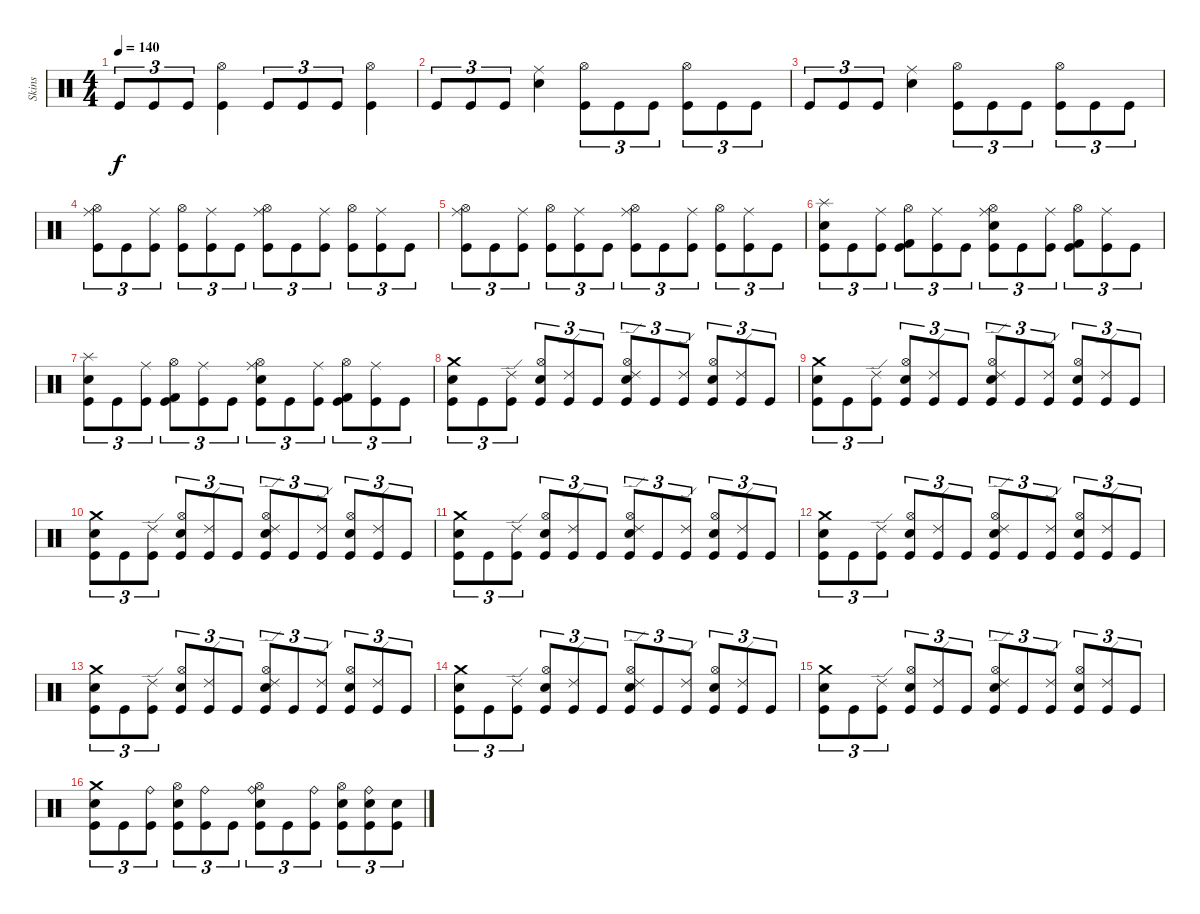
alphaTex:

\track ("Skins" "Skins") {instrument percussion}
\staff {score}
\articulation defaults
\ts (4 4)
\tempo 140
\clef neutral
\ks c "Kick (hit)".8{tu (3 2) dy f} "Kick (hit)".8{tu (3 2)} "Kick (hit)".8{tu (3 2)}
("Hi-Hat (open)" "Kick (hit)").4 "Kick (hit)".8{tu (3 2)} "Kick (hit)".8{tu (3 2)} "Kick (hit)".8{tu (3 2)} ("Hi-Hat (open)" "Kick (hit)").4 |
"Kick (hit)".8{tu (3 2)} "Kick (hit)".8{tu (3 2)} "Kick (hit)".8{tu (3 2)} ("Ride (middle)" "Electric Snare (hit)").4 ("Hi-Hat (open)" "Kick (hit)").8{tu (3 2)} "Kick (hit)".8{tu (3 2)} "Kick (hit)".8{tu (3 2)} ("Hi-Hat (open)" "Kick (hit)").8{tu (3 2)} "Kick (hit)".8{tu (3 2)} "Kick (hit)".8{tu (3 2)} |
"Kick (hit)".8{tu (3 2)} "Kick (hit)".8{tu (3 2)} "Kick (hit)".8{tu (3 2)} ("Ride (middle)" "Electric Snare (hit)").4 ("Hi-Hat (open)" "Kick (hit)").8{tu (3 2)} "Kick (hit)".8{tu (3 2)} "Kick (hit)".8{tu (3 2)} ("Hi-Hat (open)" "Kick (hit)").8{tu (3 2)} "Kick (hit)".8{tu (3 2)} "Kick (hit)".8{tu (3 2)} |
("Ride (middle)" "Hi-Hat (open)" "Kick (hit)").8{tu (3 2)} "Kick (hit)".8{tu (3 2)} ("Ride (middle)" "Kick (hit)").8{tu (3 2)} ("Hi-Hat (open)" "Kick (hit)").8{tu (3 2)} ("Ride (middle)" "Kick (hit)").8{tu (3 2)} "Kick (hit)".8{tu (3 2)} ("Ride (middle)" "Hi-Hat (open)" "Kick (hit)").8{tu (3 2)} "Kick (hit)".8{tu (3 2)} ("Ride (middle)" "Kick (hit)").8{tu (3 2)} ("Hi-Hat (open)" "Kick (hit)").8{tu (3 2)} ("Ride (middle)" "Kick (hit)").8{tu (3 2)} "Kick (hit)".8{tu (3 2)} |
("Ride (middle)" "Hi-Hat (open)" "Kick (hit)").8{tu (3 2)} "Kick (hit)".8{tu (3 2)} ("Ride (middle)" "Kick (hit)").8{tu (3 2)} ("Hi-Hat (open)" "Kick (hit)").8{tu (3 2)} ("Ride (middle)" "Kick (hit)").8{tu (3 2)} "Kick (hit)".8{tu (3 2)} ("Ride (middle)" "Hi-Hat (open)" "Kick (hit)").8{tu (3 2)} "Kick (hit)".8{tu (3 2)} ("Ride (middle)" "Kick (hit)").8{tu (3 2)} ("Hi-Hat (open)" "Kick (hit)").8{tu (3 2)} ("Ride (middle)" "Kick (hit)").8{tu (3 2)} "Kick (hit)".8{tu (3 2)} |
("Splash (hit)" "Snare (hit) 2" "Kick (hit)").8{tu (3 2)} "Kick (hit)".8{tu (3 2)} ("Ride (middle)" "Kick (hit)").8{tu (3 2)} ("Hi-Hat (open)" "Kick (hit) 2" "Kick (hit)").8{tu (3 2)} ("Ride (middle)" "Kick (hit)").8{tu (3 2)} "Kick (hit)".8{tu (3 2)} ("Ride (middle)" "Hi-Hat (open)" "Snare (hit) 2" "Kick (hit)").8{tu (3 2)} "Kick (hit)".8{tu (3 2)} ("Ride (middle)" "Kick (hit)").8{tu (3 2)} ("Hi-Hat (open)" "Kick (hit) 2" "Kick (hit)").8{tu (3 2)} ("Ride (middle)" "Kick (hit)").8{tu (3 2)} "Kick (hit)".8{tu (3 2)} |
("Splash (hit)" "Snare (hit) 2" "Kick (hit)").8{tu (3 2)} "Kick (hit)".8{tu (3 2)} ("Ride (middle)" "Kick (hit)").8{tu (3 2)} ("Hi-Hat (open)" "Kick (hit) 2" "Kick (hit)").8{tu (3 2)} ("Ride (middle)" "Kick (hit)").8{tu (3 2)} "Kick (hit)".8{tu (3 2)} ("Ride (middle)" "Hi-Hat (open)" "Snare (hit) 2" "Kick (hit)").8{tu (3 2)} "Kick (hit)".8{tu (3 2)} ("Ride (middle)" "Kick (hit)").8{tu (3 2)} ("Hi-Hat (open)" "Kick (hit) 2" "Kick (hit)").8{tu (3 2)} ("Ride (middle)" "Kick (hit)").8{tu (3 2)} "Kick (hit)".8{tu (3 2)} |
("Crash medium (hit)" "Electric Snare (hit)" "Kick (hit)").8{tu (3 2)} "Kick (hit)".8{tu (3 2)} ("Ride (edge) 2" "Kick (hit)").8{tu (3 2)} ("Hi-Hat (open)" "Electric Snare (hit)" "Kick (hit)").8{tu (3 2)} ("Ride (edge) 2" "Kick (hit)").8{tu (3 2)} "Kick (hit)".8{tu (3 2)} ("Ride (edge) 2" "Hi-Hat (open)" "Electric Snare (hit)" "Kick (hit)").8{tu (3 2)} "Kick (hit)".8{tu (3 2)} ("Ride (edge) 2" "Kick (hit)").8{tu (3 2)} ("Hi-Hat (open)" "Electric Snare (hit)" "Kick (hit)").8{tu (3 2)} ("Ride (edge) 2" "Kick (hit)").8{tu (3 2)} "Kick (hit)".8{tu (3 2)} |
("Crash medium (hit)" "Electric Snare (hit)" "Kick (hit)").8{tu (3 2)} "Kick (hit)".8{tu (3 2)} ("Ride (edge) 2" "Kick (hit)").8{tu (3 2)} ("Hi-Hat (open)" "Electric Snare (hit)" "Kick (hit)").8{tu (3 2)} ("Ride (edge) 2" "Kick (hit)").8{tu (3 2)} "Kick (hit)".8{tu (3 2)} ("Ride (edge) 2" "Hi-Hat (open)" "Electric Snare (hit)" "Kick (hit)").8{tu (3 2)} "Kick (hit)".8{tu (3 2)} ("Ride (edge) 2" "Kick (hit)").8{tu (3 2)} ("Hi-Hat (open)" "Electric Snare (hit)" "Kick (hit)").8{tu (3 2)} ("Ride (edge) 2" "Kick (hit)").8{tu (3 2)} "Kick (hit)".8{tu (3 2)} |
("Crash medium (hit)" "Electric Snare (hit)" "Kick (hit)").8{tu (3 2)} "Kick (hit)".8{tu (3 2)} ("Ride (edge) 2" "Kick (hit)").8{tu (3 2)} ("Hi-Hat (open)" "Electric Snare (hit)" "Kick (hit)").8{tu (3 2)} ("Ride (edge) 2" "Kick (hit)").8{tu (3 2)} "Kick (hit)".8{tu (3 2)} ("Ride (edge) 2" "Hi-Hat (open)" "Electric Snare (hit)" "Kick (hit)").8{tu (3 2)} "Kick (hit)".8{tu (3 2)} ("Ride (edge) 2" "Kick (hit)").8{tu (3 2)} ("Hi-Hat (open)" "Electric Snare (hit)" "Kick (hit)").8{tu (3 2)} ("Ride (edge) 2" "Kick (hit)").8{tu (3 2)} "Kick (hit)".8{tu (3 2)} |
("Crash medium (hit)" "Electric Snare (hit)" "Kick (hit)").8{tu (3 2)} "Kick (hit)".8{tu (3 2)} ("Ride (edge) 2" "Kick (hit)").8{tu (3 2)} ("Hi-Hat (open)" "Electric Snare (hit)" "Kick (hit)").8{tu (3 2)} ("Ride (edge) 2" "Kick (hit)").8{tu (3 2)} "Kick (hit)".8{tu (3 2)} ("Ride (edge) 2" "Hi-Hat (open)" "Electric Snare (hit)" "Kick (hit)").8{tu (3 2)} "Kick (hit)".8{tu (3 2)} ("Ride (edge) 2" "Kick (hit)").8{tu (3 2)} ("Hi-Hat (open)" "Electric Snare (hit)" "Kick (hit)").8{tu (3 2)} ("Ride (edge) 2" "Kick (hit)").8{tu (3 2)} "Kick (hit)".8{tu (3 2)} |
("Crash medium (hit)" "Electric Snare (hit)" "Kick (hit)").8{tu (3 2)} "Kick (hit)".8{tu (3 2)} ("Ride (edge) 2" "Kick (hit)").8{tu (3 2)} ("Hi-Hat (open)" "Electric Snare (hit)" "Kick (hit)").8{tu (3 2)} ("Ride (edge) 2" "Kick (hit)").8{tu (3 2)} "Kick (hit)".8{tu (3 2)} ("Ride (edge) 2" "Hi-Hat (open)" "Electric Snare (hit)" "Kick (hit)").8{tu (3 2)} "Kick (hit)".8{tu (3 2)} ("Ride (edge) 2" "Kick (hit)").8{tu (3 2)} ("Hi-Hat (open)" "Electric Snare (hit)" "Kick (hit)").8{tu (3 2)} ("Ride (edge) 2" "Kick (hit)").8{tu (3 2)} "Kick (hit)".8{tu (3 2)} |
("Crash medium (hit)" "Electric Snare (hit)" "Kick (hit)").8{tu (3 2)} "Kick (hit)".8{tu (3 2)} ("Ride (edge) 2" "Kick (hit)").8{tu (3 2)} ("Hi-Hat (open)" "Electric Snare (hit)" "Kick (hit)").8{tu (3 2)} ("Ride (edge) 2" "Kick (hit)").8{tu (3 2)} "Kick (hit)".8{tu (3 2)} ("Ride (edge) 2" "Hi-Hat (open)" "Electric Snare (hit)" "Kick (hit)").8{tu (3 2)} "Kick (hit)".8{tu (3 2)} ("Ride (edge) 2" "Kick (hit)").8{tu (3 2)} ("Hi-Hat (open)" "Electric Snare (hit)" "Kick (hit)").8{tu (3 2)} ("Ride (edge) 2" "Kick (hit)").8{tu (3 2)} "Kick (hit)".8{tu (3 2)} |
("Crash medium (hit)" "Electric Snare (hit)" "Kick (hit)").8{tu (3 2)} "Kick (hit)".8{tu (3 2)} ("Ride (edge) 2" "Kick (hit)").8{tu (3 2)} ("Hi-Hat (open)" "Electric Snare (hit)" "Kick (hit)").8{tu (3 2)} ("Ride (edge) 2" "Kick (hit)").8{tu (3 2)} "Kick (hit)".8{tu (3 2)} ("Ride (edge) 2" "Hi-Hat (open)" "Electric Snare (hit)" "Kick (hit)").8{tu (3 2)} "Kick (hit)".8{tu (3 2)} ("Ride (edge) 2" "Kick (hit)").8{tu (3 2)} ("Hi-Hat (open)" "Electric Snare (hit)" "Kick (hit)").8{tu (3 2)} ("Ride (edge) 2" "Kick (hit)").8{tu (3 2)} "Kick (hit)".8{tu (3 2)} |
("Crash medium (hit)" "Electric Snare (hit)" "Kick (hit)").8{tu (3 2)} "Kick (hit)".8{tu (3 2)} ("Ride (edge) 2" "Kick (hit)").8{tu (3 2)} ("Hi-Hat (open)" "Electric Snare (hit)" "Kick (hit)").8{tu (3 2)} ("Ride (edge) 2" "Kick (hit)").8{tu (3 2)} "Kick (hit)".8{tu (3 2)} ("Ride (edge) 2" "Hi-Hat (open)" "Electric Snare (hit)" "Kick (hit)").8{tu (3 2)} "Kick (hit)".8{tu (3 2)} ("Ride (edge) 2" "Kick (hit)").8{tu (3 2)} ("Hi-Hat (open)" "Electric Snare (hit)" "Kick (hit)").8{tu (3 2)} ("Ride (edge) 2" "Kick (hit)").8{tu (3 2)} "Kick (hit)".8{tu (3 2)} |
("Crash medium (hit)" "Snare (hit) 2" "Kick (hit)").8{tu (3 2)} "Kick (hit)".8{tu (3 2)} ("Ride (bell)" "Kick (hit)").8{tu (3 2)} ("Hi-Hat (open)" "Snare (hit) 2" "Kick (hit)").8{tu (3 2)} ("Ride (bell)" "Kick (hit)").8{tu (3 2)} "Kick (hit)".8{tu (3 2)} ("Ride (bell)" "Hi-Hat (open)" "Snare (hit) 2" "Kick (hit)").8{tu (3 2)} "Kick (hit)".8{tu (3 2)} ("Ride (bell)" "Kick (hit)").8{tu (3 2)} ("Hi-Hat (open)" "Snare (hit) 2" "Kick (hit)").8{tu (3 2)} ("Ride (bell)" "Snare (hit) 2" "Kick (hit)").8{tu (3 2)} ("Snare (hit) 2" "Kick (hit)").8{tu (3 2)}
